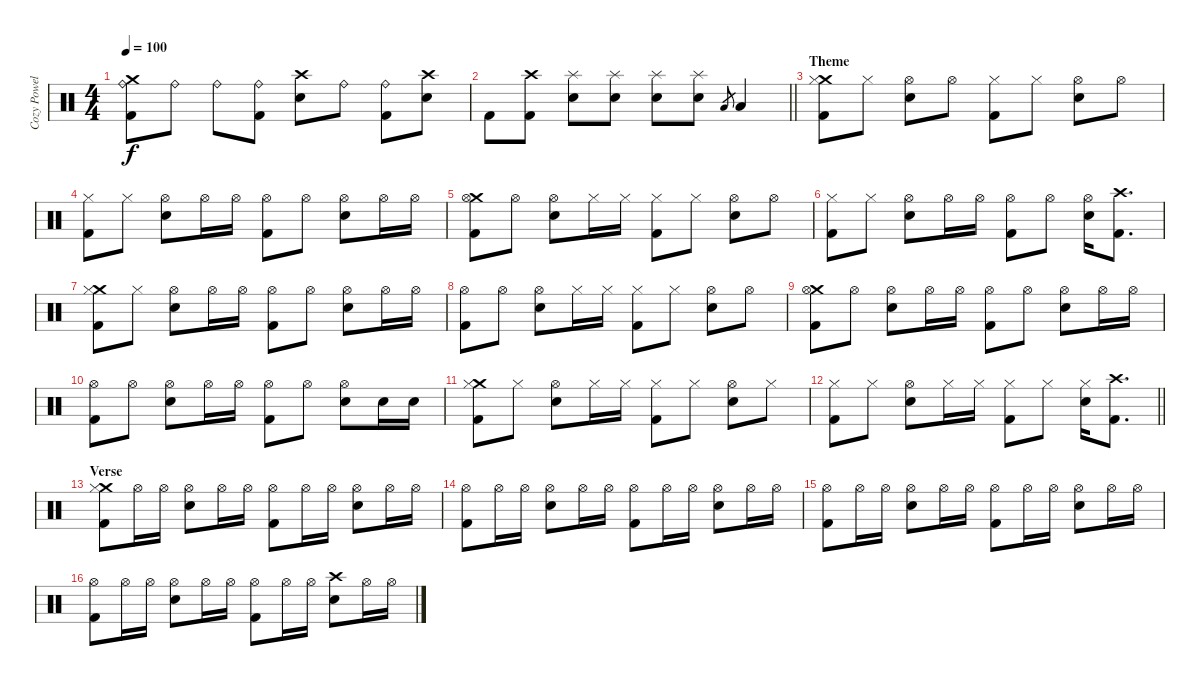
\track ("Cozy Powell " "Cozy Powel") {instrument percussion}
\staff {score}
\articulation defaults
\ts (4 4)
\tempo 100
\clef neutral
\ks c
("Crash medium (hit)" "Ride (bell)" "Kick (hit) 2").8{dy f} "Ride (bell)".8 "Ride (bell)".8 ("Ride (bell)" "Kick (hit) 2").8 ("Crash high (hit)" "Snare (hit) 2").8 "Ride (bell)".8 ("Ride (bell)" "Kick (hit) 2").8 ("Crash high (hit)" "Snare (hit) 2").8 |
\barLineRight lightlight "Kick (hit) 2".8
("Crash high (hit)" "Kick (hit) 2").8 ("Splash (hit)" "Snare (hit) 2").8 ("Splash (hit)" "Snare (hit) 2").8 ("Splash (hit)" "Snare (hit) 2").8 ("Splash (hit)" "Snare (hit) 2").8 "Low Tom (hit)".8{gr} "Low Tom (hit)".4 |
\section ("" "Theme")
("Crash medium (hit)" "Hi-Hat (closed)" "Kick (hit) 2").8 "Hi-Hat (closed)".8 ("Hi-Hat (open)" "Snare (hit) 2").8 "Hi-Hat (open)".8 ("Hi-Hat (closed)" "Kick (hit) 2").8 "Hi-Hat (closed)".8 ("Hi-Hat (open)" "Snare (hit) 2").8 "Hi-Hat (open)".8 |
("Hi-Hat (closed)" "Kick (hit) 2").8 "Hi-Hat (closed)".8 ("Hi-Hat (open)" "Snare (hit) 2").8 "Hi-Hat (open)".16 "Hi-Hat (open)".16 ("Hi-Hat (open)" "Kick (hit) 2").8 "Hi-Hat (open)".8 ("Hi-Hat (open)" "Snare (hit) 2").8 "Hi-Hat (open)".16 "Hi-Hat (open)".16 |
("Crash medium (hit)" "Hi-Hat (open)" "Kick (hit) 2").8 "Hi-Hat (open)".8 ("Hi-Hat (open)" "Snare (hit) 2").8 "Hi-Hat (closed)".16 "Hi-Hat (closed)".16 ("Hi-Hat (closed)" "Kick (hit) 2").8 "Hi-Hat (closed)".8 ("Hi-Hat (open)" "Snare (hit) 2").8 "Hi-Hat (open)".8 |
("Hi-Hat (closed)" "Kick (hit) 2").8 "Hi-Hat (closed)".8 ("Hi-Hat (open)" "Snare (hit) 2").8 "Hi-Hat (open)".16 "Hi-Hat (open)".16 ("Hi-Hat (open)" "Kick (hit) 2").8 "Hi-Hat (open)".8 ("Hi-Hat (open)" "Snare (hit) 2").16 ("Crash high (hit)" "Kick (hit) 2").8{d} |
("Crash medium (hit)" "Hi-Hat (closed)" "Kick (hit) 2").8 "Hi-Hat (closed)".8 ("Hi-Hat (open)" "Snare (hit) 2").8 "Hi-Hat (open)".16 "Hi-Hat (open)".16 ("Hi-Hat (open)" "Kick (hit) 2").8 "Hi-Hat (open)".8 ("Hi-Hat (open)" "Snare (hit) 2").8 "Hi-Hat (open)".16 "Hi-Hat (open)".16 |
("Hi-Hat (open)" "Kick (hit) 2").8 "Hi-Hat (open)".8 ("Hi-Hat (open)" "Snare (hit) 2").8 "Hi-Hat (closed)".16 "Hi-Hat (closed)".16 ("Hi-Hat (closed)" "Kick (hit) 2").8 "Hi-Hat (closed)".8 ("Hi-Hat (open)" "Snare (hit) 2").8 "Hi-Hat (open)".8 |
("Crash medium (hit)" "Hi-Hat (open)" "Kick (hit) 2").8 "Hi-Hat (open)".8 ("Hi-Hat (open)" "Snare (hit) 2").8 "Hi-Hat (open)".16 "Hi-Hat (open)".16 ("Hi-Hat (open)" "Kick (hit) 2").8 "Hi-Hat (open)".8 ("Hi-Hat (open)" "Snare (hit) 2").8 "Hi-Hat (open)".16 "Hi-Hat (open)".16 |
("Hi-Hat (open)" "Kick (hit) 2").8 "Hi-Hat (open)".8 ("Hi-Hat (open)" "Snare (hit) 2").8 "Hi-Hat (open)".16 "Hi-Hat (open)".16 ("Hi-Hat (open)" "Kick (hit) 2").8 "Hi-Hat (open)".8 ("Hi-Hat (open)" "Snare (hit) 2").8 "Snare (hit) 2".16 "Snare (hit) 2".16 |
("Crash medium (hit)" "Hi-Hat (closed)" "Kick (hit) 2").8 "Hi-Hat (closed)".8 ("Hi-Hat (open)" "Snare (hit) 2").8 "Hi-Hat (closed)".16 "Hi-Hat (closed)".16 ("Hi-Hat (closed)" "Kick (hit) 2").8 "Hi-Hat (closed)".8 ("Hi-Hat (open)" "Snare (hit) 2").8 "Hi-Hat (closed)".8 |
\barLineRight lightlight
("Hi-Hat (closed)" "Kick (hit) 2").8 "Hi-Hat (closed)".8 ("Hi-Hat (open)" "Snare (hit) 2").8 "Hi-Hat (closed)".16 "Hi-Hat (closed)".16 ("Hi-Hat (closed)" "Kick (hit) 2").8 "Hi-Hat (closed)".8 ("Hi-Hat (closed)" "Snare (hit) 2").16 ("Crash high (hit)" "Kick (hit) 2").8{d} |
\section ("" "Verse")
("Crash medium (hit)" "Hi-Hat (closed)" "Kick (hit) 2").8 "Hi-Hat (open)".16 "Hi-Hat (open)".16 ("Hi-Hat (open)" "Snare (hit) 2").8 "Hi-Hat (open)".16 "Hi-Hat (open)".16 ("Hi-Hat (open)" "Kick (hit) 2").8 "Hi-Hat (open)".16 "Hi-Hat (open)".16 ("Hi-Hat (open)" "Snare (hit) 2").8 "Hi-Hat (open)".16 "Hi-Hat (open)".16 |
("Hi-Hat (open)" "Kick (hit) 2").8 "Hi-Hat (open)".16 "Hi-Hat (open)".16 ("Hi-Hat (open)" "Snare (hit) 2").8 "Hi-Hat (open)".16 "Hi-Hat (open)".16 ("Hi-Hat (open)" "Kick (hit) 2").8 "Hi-Hat (open)".16 "Hi-Hat (open)".16 ("Hi-Hat (open)" "Snare (hit) 2").8 "Hi-Hat (open)".16 "Hi-Hat (open)".16 |
("Hi-Hat (open)" "Kick (hit) 2").8 "Hi-Hat (open)".16 "Hi-Hat (open)".16 ("Hi-Hat (open)" "Snare (hit) 2").8 "Hi-Hat (open)".16 "Hi-Hat (open)".16 ("Hi-Hat (open)" "Kick (hit) 2").8 "Hi-Hat (open)".16 "Hi-Hat (open)".16 ("Hi-Hat (open)" "Snare (hit) 2").8 "Hi-Hat (open)".16 "Hi-Hat (open)".16 |
("Hi-Hat (open)" "Kick (hit) 2").8 "Hi-Hat (open)".16 "Hi-Hat (open)".16 ("Hi-Hat (open)" "Snare (hit) 2").8 "Hi-Hat (open)".16 "Hi-Hat (open)".16 ("Hi-Hat (open)" "Kick (hit) 2").8 "Hi-Hat (open)".16 "Hi-Hat (open)".16 ("Crash high (hit)" "Snare (hit) 2").8 "Hi-Hat (open)".16 "Hi-Hat (open)".16
